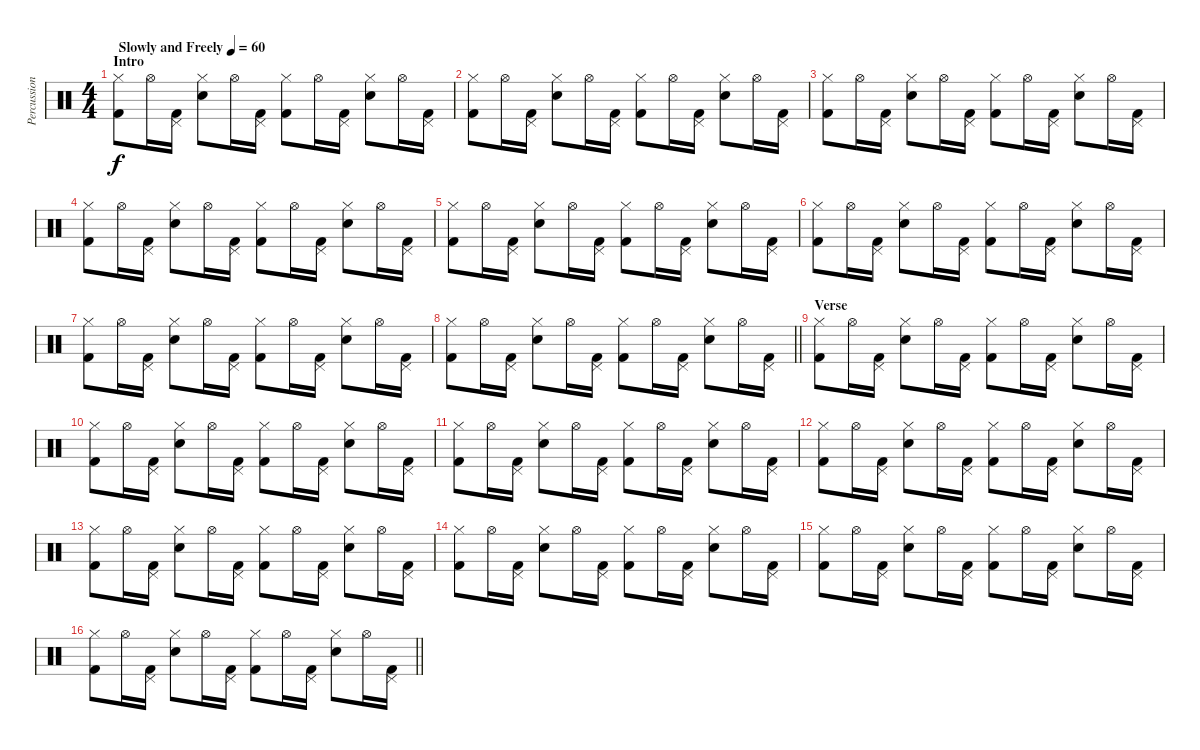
\track ("Percussion" "Percussion") {instrument percussion}
\staff {score}
\articulation defaults
\ts (4 4)
\section ("" "Intro")
\tempo (60 "Slowly and Freely")
\clef neutral
\ks c
("Hi-Hat (closed)" "Kick (hit) 2").8{dy f} "Hi-Hat (open)".16 ("Pedal Hi-Hat (hit)" "Kick (hit) 2").16 ("Hi-Hat (closed)" "Electric Snare (hit)").8 "Hi-Hat (open)".16 ("Pedal Hi-Hat (hit)" "Kick (hit) 2").16 ("Hi-Hat (closed)" "Kick (hit) 2").8 "Hi-Hat (open)".16 ("Pedal Hi-Hat (hit)" "Kick (hit) 2").16 ("Hi-Hat (closed)" "Electric Snare (hit)").8 "Hi-Hat (open)".16 ("Pedal Hi-Hat (hit)" "Kick (hit) 2").16 |
("Hi-Hat (closed)" "Kick (hit) 2").8 "Hi-Hat (open)".16 ("Pedal Hi-Hat (hit)" "Kick (hit) 2").16 ("Hi-Hat (closed)" "Electric Snare (hit)").8 "Hi-Hat (open)".16 ("Pedal Hi-Hat (hit)" "Kick (hit) 2").16 ("Hi-Hat (closed)" "Kick (hit) 2").8 "Hi-Hat (open)".16 ("Pedal Hi-Hat (hit)" "Kick (hit) 2").16 ("Hi-Hat (closed)" "Electric Snare (hit)").8 "Hi-Hat (open)".16 ("Pedal Hi-Hat (hit)" "Kick (hit) 2").16 |
("Hi-Hat (closed)" "Kick (hit) 2").8 "Hi-Hat (open)".16 ("Pedal Hi-Hat (hit)" "Kick (hit) 2").16 ("Hi-Hat (closed)" "Electric Snare (hit)").8 "Hi-Hat (open)".16 ("Pedal Hi-Hat (hit)" "Kick (hit) 2").16 ("Hi-Hat (closed)" "Kick (hit) 2").8 "Hi-Hat (open)".16 ("Pedal Hi-Hat (hit)" "Kick (hit) 2").16 ("Hi-Hat (closed)" "Electric Snare (hit)").8 "Hi-Hat (open)".16 ("Pedal Hi-Hat (hit)" "Kick (hit) 2").16 |
("Hi-Hat (closed)" "Kick (hit) 2").8 "Hi-Hat (open)".16 ("Pedal Hi-Hat (hit)" "Kick (hit) 2").16 ("Hi-Hat (closed)" "Electric Snare (hit)").8 "Hi-Hat (open)".16 ("Pedal Hi-Hat (hit)" "Kick (hit) 2").16 ("Hi-Hat (closed)" "Kick (hit) 2").8 "Hi-Hat (open)".16 ("Pedal Hi-Hat (hit)" "Kick (hit) 2").16 ("Hi-Hat (closed)" "Electric Snare (hit)").8 "Hi-Hat (open)".16 ("Pedal Hi-Hat (hit)" "Kick (hit) 2").16 |
("Hi-Hat (closed)" "Kick (hit) 2").8 "Hi-Hat (open)".16 ("Pedal Hi-Hat (hit)" "Kick (hit) 2").16 ("Hi-Hat (closed)" "Electric Snare (hit)").8 "Hi-Hat (open)".16 ("Pedal Hi-Hat (hit)" "Kick (hit) 2").16 ("Hi-Hat (closed)" "Kick (hit) 2").8 "Hi-Hat (open)".16 ("Pedal Hi-Hat (hit)" "Kick (hit) 2").16 ("Hi-Hat (closed)" "Electric Snare (hit)").8 "Hi-Hat (open)".16 ("Pedal Hi-Hat (hit)" "Kick (hit) 2").16 |
("Hi-Hat (closed)" "Kick (hit) 2").8 "Hi-Hat (open)".16 ("Pedal Hi-Hat (hit)" "Kick (hit) 2").16 ("Hi-Hat (closed)" "Electric Snare (hit)").8 "Hi-Hat (open)".16 ("Pedal Hi-Hat (hit)" "Kick (hit) 2").16 ("Hi-Hat (closed)" "Kick (hit) 2").8 "Hi-Hat (open)".16 ("Pedal Hi-Hat (hit)" "Kick (hit) 2").16 ("Hi-Hat (closed)" "Electric Snare (hit)").8 "Hi-Hat (open)".16 ("Pedal Hi-Hat (hit)" "Kick (hit) 2").16 |
("Hi-Hat (closed)" "Kick (hit) 2").8 "Hi-Hat (open)".16 ("Pedal Hi-Hat (hit)" "Kick (hit) 2").16 ("Hi-Hat (closed)" "Electric Snare (hit)").8 "Hi-Hat (open)".16 ("Pedal Hi-Hat (hit)" "Kick (hit) 2").16 ("Hi-Hat (closed)" "Kick (hit) 2").8 "Hi-Hat (open)".16 ("Pedal Hi-Hat (hit)" "Kick (hit) 2").16 ("Hi-Hat (closed)" "Electric Snare (hit)").8 "Hi-Hat (open)".16 ("Pedal Hi-Hat (hit)" "Kick (hit) 2").16 |
\barLineRight lightlight
("Hi-Hat (closed)" "Kick (hit) 2").8 "Hi-Hat (open)".16 ("Pedal Hi-Hat (hit)" "Kick (hit) 2").16 ("Hi-Hat (closed)" "Electric Snare (hit)").8 "Hi-Hat (open)".16 ("Pedal Hi-Hat (hit)" "Kick (hit) 2").16 ("Hi-Hat (closed)" "Kick (hit) 2").8 "Hi-Hat (open)".16 ("Pedal Hi-Hat (hit)" "Kick (hit) 2").16 ("Hi-Hat (closed)" "Electric Snare (hit)").8 "Hi-Hat (open)".16 ("Pedal Hi-Hat (hit)" "Kick (hit) 2").16 |
\section ("" "Verse")
("Hi-Hat (closed)" "Kick (hit) 2").8 "Hi-Hat (open)".16 ("Pedal Hi-Hat (hit)" "Kick (hit) 2").16 ("Hi-Hat (closed)" "Electric Snare (hit)").8 "Hi-Hat (open)".16 ("Pedal Hi-Hat (hit)" "Kick (hit) 2").16 ("Hi-Hat (closed)" "Kick (hit) 2").8 "Hi-Hat (open)".16 ("Pedal Hi-Hat (hit)" "Kick (hit) 2").16 ("Hi-Hat (closed)" "Electric Snare (hit)").8 "Hi-Hat (open)".16 ("Pedal Hi-Hat (hit)" "Kick (hit) 2").16 |
("Hi-Hat (closed)" "Kick (hit) 2").8 "Hi-Hat (open)".16 ("Pedal Hi-Hat (hit)" "Kick (hit) 2").16 ("Hi-Hat (closed)" "Electric Snare (hit)").8 "Hi-Hat (open)".16 ("Pedal Hi-Hat (hit)" "Kick (hit) 2").16 ("Hi-Hat (closed)" "Kick (hit) 2").8 "Hi-Hat (open)".16 ("Pedal Hi-Hat (hit)" "Kick (hit) 2").16 ("Hi-Hat (closed)" "Electric Snare (hit)").8 "Hi-Hat (open)".16 ("Pedal Hi-Hat (hit)" "Kick (hit) 2").16 |
("Hi-Hat (closed)" "Kick (hit) 2").8 "Hi-Hat (open)".16 ("Pedal Hi-Hat (hit)" "Kick (hit) 2").16 ("Hi-Hat (closed)" "Electric Snare (hit)").8 "Hi-Hat (open)".16 ("Pedal Hi-Hat (hit)" "Kick (hit) 2").16 ("Hi-Hat (closed)" "Kick (hit) 2").8 "Hi-Hat (open)".16 ("Pedal Hi-Hat (hit)" "Kick (hit) 2").16 ("Hi-Hat (closed)" "Electric Snare (hit)").8 "Hi-Hat (open)".16 ("Pedal Hi-Hat (hit)" "Kick (hit) 2").16 |
("Hi-Hat (closed)" "Kick (hit) 2").8 "Hi-Hat (open)".16 ("Pedal Hi-Hat (hit)" "Kick (hit) 2").16 ("Hi-Hat (closed)" "Electric Snare (hit)").8 "Hi-Hat (open)".16 ("Pedal Hi-Hat (hit)" "Kick (hit) 2").16 ("Hi-Hat (closed)" "Kick (hit) 2").8 "Hi-Hat (open)".16 ("Pedal Hi-Hat (hit)" "Kick (hit) 2").16 ("Hi-Hat (closed)" "Electric Snare (hit)").8 "Hi-Hat (open)".16 ("Pedal Hi-Hat (hit)" "Kick (hit) 2").16 |
("Hi-Hat (closed)" "Kick (hit) 2").8 "Hi-Hat (open)".16 ("Pedal Hi-Hat (hit)" "Kick (hit) 2").16 ("Hi-Hat (closed)" "Electric Snare (hit)").8 "Hi-Hat (open)".16 ("Pedal Hi-Hat (hit)" "Kick (hit) 2").16 ("Hi-Hat (closed)" "Kick (hit) 2").8 "Hi-Hat (open)".16 ("Pedal Hi-Hat (hit)" "Kick (hit) 2").16 ("Hi-Hat (closed)" "Electric Snare (hit)").8 "Hi-Hat (open)".16 ("Pedal Hi-Hat (hit)" "Kick (hit) 2").16 |
("Hi-Hat (closed)" "Kick (hit) 2").8 "Hi-Hat (open)".16 ("Pedal Hi-Hat (hit)" "Kick (hit) 2").16 ("Hi-Hat (closed)" "Electric Snare (hit)").8 "Hi-Hat (open)".16 ("Pedal Hi-Hat (hit)" "Kick (hit) 2").16 ("Hi-Hat (closed)" "Kick (hit) 2").8 "Hi-Hat (open)".16 ("Pedal Hi-Hat (hit)" "Kick (hit) 2").16 ("Hi-Hat (closed)" "Electric Snare (hit)").8 "Hi-Hat (open)".16 ("Pedal Hi-Hat (hit)" "Kick (hit) 2").16 |
("Hi-Hat (closed)" "Kick (hit) 2").8 "Hi-Hat (open)".16 ("Pedal Hi-Hat (hit)" "Kick (hit) 2").16 ("Hi-Hat (closed)" "Electric Snare (hit)").8 "Hi-Hat (open)".16 ("Pedal Hi-Hat (hit)" "Kick (hit) 2").16 ("Hi-Hat (closed)" "Kick (hit) 2").8 "Hi-Hat (open)".16 ("Pedal Hi-Hat (hit)" "Kick (hit) 2").16 ("Hi-Hat (closed)" "Electric Snare (hit)").8 "Hi-Hat (open)".16 ("Pedal Hi-Hat (hit)" "Kick (hit) 2").16 |
\barLineRight lightlight
("Hi-Hat (closed)" "Kick (hit) 2").8 "Hi-Hat (open)".16 ("Pedal Hi-Hat (hit)" "Kick (hit) 2").16 ("Hi-Hat (closed)" "Electric Snare (hit)").8 "Hi-Hat (open)".16 ("Pedal Hi-Hat (hit)" "Kick (hit) 2").16 ("Hi-Hat (closed)" "Kick (hit) 2").8 "Hi-Hat (open)".16 ("Pedal Hi-Hat (hit)" "Kick (hit) 2").16 ("Hi-Hat (closed)" "Electric Snare (hit)").8 "Hi-Hat (open)".16 ("Pedal Hi-Hat (hit)" "Kick (hit) 2").16
